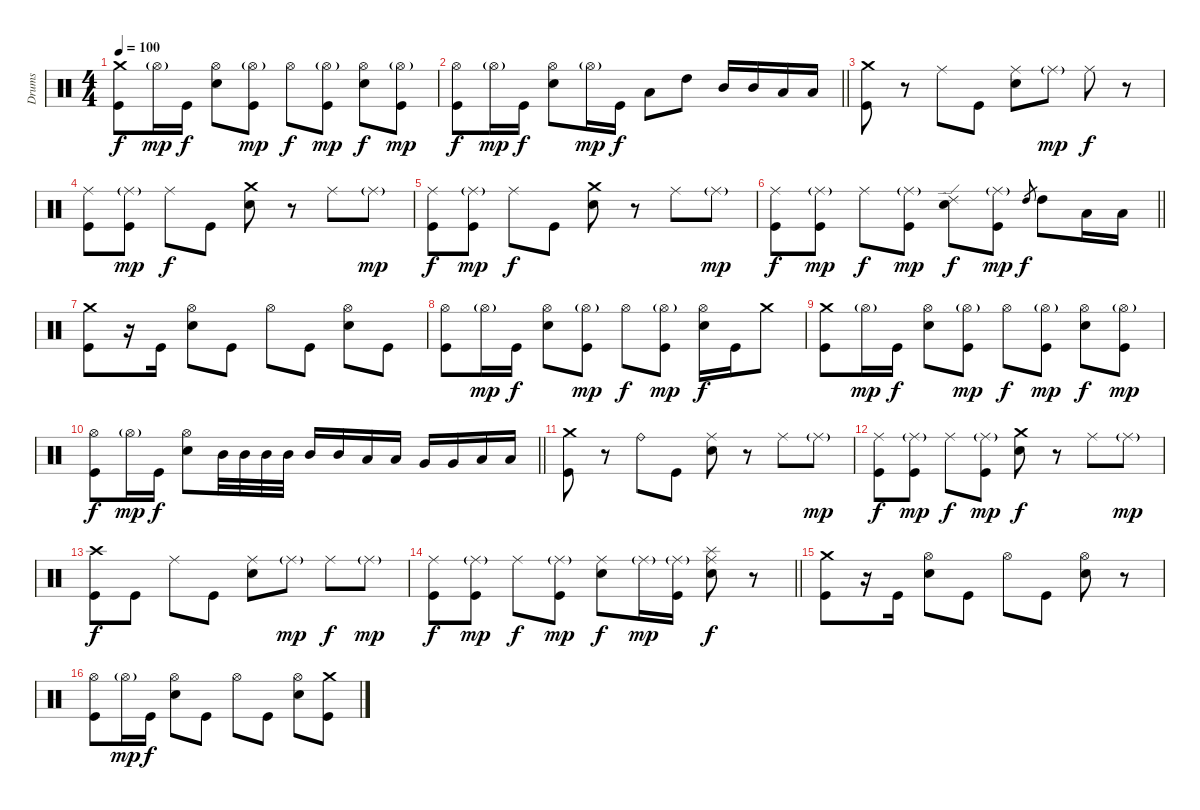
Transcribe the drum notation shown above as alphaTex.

\track ("Drums" "Drums") {instrument percussion}
\staff {score}
\articulation defaults
\ts (4 4)
\tempo 100
\clef neutral
\ks c
("Crash medium (hit)" "Kick (hit)").8{dy f} "Hi-Hat (open)"{g}.16{dy mp} "Kick (hit)".16{dy f} ("Hi-Hat (open)" "Electric Snare (hit)").8 ("Hi-Hat (open)"{g} "Kick (hit)").8{dy mp} "Hi-Hat (open)".8{dy f} ("Hi-Hat (open)"{g} "Kick (hit)").8{dy mp} ("Hi-Hat (open)" "Electric Snare (hit)").8{dy f} ("Hi-Hat (open)"{g} "Kick (hit)").8{dy mp} |
\barLineRight lightlight
("Hi-Hat (open)" "Kick (hit)").8{dy f} "Hi-Hat (open)"{g}.16{dy mp} "Kick (hit)".16{dy f} ("Hi-Hat (open)" "Electric Snare (hit)").8 "Hi-Hat (open)"{g}.16{dy mp} "Kick (hit)".16{dy f} "Low Tom (hit)".8 "High Tom (hit)".8 "Mid Tom (hit)".16 "Mid Tom (hit)".16 "Low Tom (hit)".16 "Low Floor Tom (hit)".16 |
("Crash medium (hit)" "Kick (hit)").8 r.8 "Ride (middle)".8 "Kick (hit)".8 ("Ride (middle)" "Electric Snare (hit)").8 "Ride (middle)"{g}.8{dy mp} "Ride (middle)".8{dy f} r.8 |
("Ride (middle)" "Kick (hit)").8 ("Ride (middle)"{g} "Kick (hit)").8{dy mp} "Ride (middle)".8{dy f} "Kick (hit)".8 ("Crash medium (hit)" "Electric Snare (hit)").8 r.8 "Ride (middle)".8 "Ride (middle)"{g}.8{dy mp} |
("Ride (middle)" "Kick (hit)").8{dy f} ("Ride (middle)"{g} "Kick (hit)").8{dy mp} "Ride (middle)".8{dy f} "Kick (hit)".8 ("Crash medium (hit)" "Electric Snare (hit)").8 r.8 "Ride (middle)".8 "Ride (middle)"{g}.8{dy mp} |
\barLineRight lightlight
("Ride (middle)" "Kick (hit)").8{dy f} ("Ride (middle)"{g} "Kick (hit)").8{dy mp} "Ride (middle)".8{dy f} ("Ride (middle)"{g} "Kick (hit)").8{dy mp} ("Ride (edge) 2" "Electric Snare (hit)").8{dy f} ("Ride (middle)"{g} "Kick (hit)").8{dy mp} "High Tom (hit)".8{gr dy f} "High Tom (hit)".8 "Low Tom (hit)".16 "Low Floor Tom (hit)".16 |
("Crash medium (hit)" "Kick (hit)").8 r.16 "Kick (hit)".16 ("Hi-Hat (open)" "Electric Snare (hit)").8 "Kick (hit)".8 "Hi-Hat (open)".8 "Kick (hit)".8 ("Hi-Hat (open)" "Electric Snare (hit)").8 "Kick (hit)".8 |
("Hi-Hat (open)" "Kick (hit)").8 "Hi-Hat (open)"{g}.16{dy mp} "Kick (hit)".16{dy f} ("Hi-Hat (open)" "Electric Snare (hit)").8 ("Hi-Hat (open)"{g} "Kick (hit)").8{dy mp} "Hi-Hat (open)".8{dy f} ("Hi-Hat (open)"{g} "Kick (hit)").8{dy mp} ("Hi-Hat (open)" "Electric Snare (hit)").16{dy f} "Kick (hit)".16 "Crash medium (hit)".8 |
("Crash medium (hit)" "Kick (hit)").8 "Hi-Hat (open)"{g}.16{dy mp} "Kick (hit)".16{dy f} ("Hi-Hat (open)" "Electric Snare (hit)").8 ("Hi-Hat (open)"{g} "Kick (hit)").8{dy mp} "Hi-Hat (open)".8{dy f} ("Hi-Hat (open)"{g} "Kick (hit)").8{dy mp} ("Hi-Hat (open)" "Electric Snare (hit)").8{dy f} ("Hi-Hat (open)"{g} "Kick (hit)").8{dy mp} |
\barLineRight lightlight
("Hi-Hat (open)" "Kick (hit)").8{dy f} "Hi-Hat (open)"{g}.16{dy mp} "Kick (hit)".16{dy f} ("Hi-Hat (open)" "Electric Snare (hit)").8 "Mid Tom (hit)".32 "Mid Tom (hit)".32 "Mid Tom (hit)".32 "Mid Tom (hit)".32 "Mid Tom (hit)".16 "Mid Tom (hit)".16 "Low Tom (hit)".16 "Low Tom (hit)".16 "Very Low Tom (hit)".16 "Very Low Tom (hit)".16 "Low Floor Tom (hit)".16 "Low Floor Tom (hit)".16 |
("Crash medium (hit)" "Kick (hit)").8 r.8 "Ride (bell)".8 "Kick (hit)".8 ("Ride (middle)" "Electric Snare (hit)").8 r.8 "Ride (middle)".8 "Ride (middle)"{g}.8{dy mp} |
("Ride (middle)" "Kick (hit)").8{dy f} ("Ride (middle)"{g} "Kick (hit)").8{dy mp} "Ride (middle)".8{dy f} ("Ride (middle)"{g} "Kick (hit)").8{dy mp} ("Crash medium (hit)" "Electric Snare (hit)").8{dy f} r.8 "Ride (middle)".8 "Ride (middle)"{g}.8{dy mp} |
("Crash high (hit)" "Kick (hit)").8{dy f} "Kick (hit)".8 "Ride (middle)".8 "Kick (hit)".8 ("Ride (middle)" "Electric Snare (hit)").8 "Ride (middle)"{g}.8{dy mp} "Ride (middle)".8{dy f} "Ride (middle)"{g}.8{dy mp} |
\barLineRight lightlight
("Ride (middle)" "Kick (hit)").8{dy f} ("Ride (middle)"{g} "Kick (hit)").8{dy mp} "Ride (middle)".8{dy f} ("Ride (middle)"{g} "Kick (hit)").8{dy mp} ("Ride (middle)" "Electric Snare (hit)").8{dy f} "Ride (middle)"{g}.16{dy mp} ("Ride (middle)"{g} "Kick (hit)").16 ("Splash (hit)" "Ride (middle)" "Electric Snare (hit)").8{dy f} r.8 |
("Crash medium (hit)" "Kick (hit)").8 r.16 "Kick (hit)".16 ("Hi-Hat (open)" "Electric Snare (hit)").8 "Kick (hit)".8 "Hi-Hat (open)".8 "Kick (hit)".8 ("Hi-Hat (open)" "Electric Snare (hit)").8 r.8 |
("Hi-Hat (open)" "Kick (hit)").8 "Hi-Hat (open)"{g}.16{dy mp} "Kick (hit)".16{dy f} ("Hi-Hat (open)" "Electric Snare (hit)").8 "Kick (hit)".8 "Hi-Hat (open)".8 "Kick (hit)".8 ("Hi-Hat (open)" "Electric Snare (hit)").8 ("Crash medium (hit)" "Kick (hit)").8
